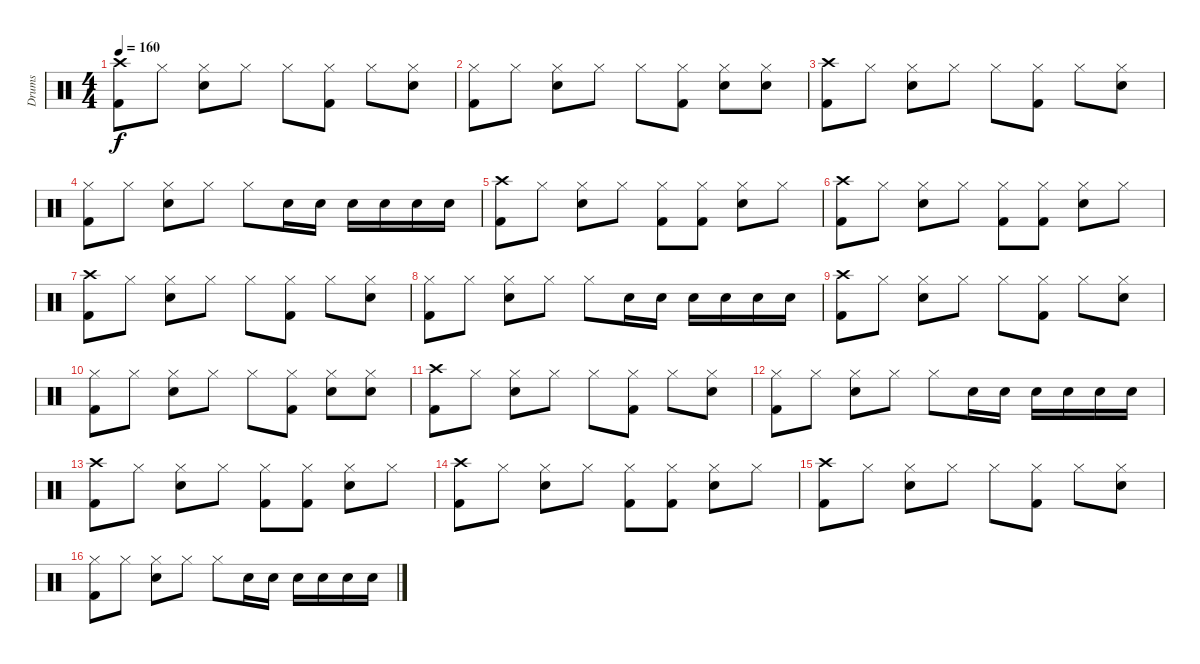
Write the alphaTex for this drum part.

\track ("Drums" "Drums") {solo instrument percussion}
\staff {score}
\articulation defaults
\ts (4 4)
\tempo 160
\clef neutral
\ks c
("Crash high (hit)" "Kick (hit) 2").8{dy f} "Hi-Hat (closed)".8 ("Hi-Hat (closed)" "Snare (hit) 2").8 "Hi-Hat (closed)".8 "Hi-Hat (closed)".8 ("Hi-Hat (closed)" "Kick (hit) 2").8 "Hi-Hat (closed)".8 ("Hi-Hat (closed)" "Snare (hit) 2").8 |
("Hi-Hat (closed)" "Kick (hit) 2").8 "Hi-Hat (closed)".8 ("Hi-Hat (closed)" "Snare (hit) 2").8 "Hi-Hat (closed)".8 "Hi-Hat (closed)".8 ("Hi-Hat (closed)" "Kick (hit) 2").8 ("Hi-Hat (closed)" "Snare (hit) 2").8 ("Hi-Hat (closed)" "Snare (hit) 2").8 |
("Crash high (hit)" "Kick (hit) 2").8 "Hi-Hat (closed)".8 ("Hi-Hat (closed)" "Snare (hit) 2").8 "Hi-Hat (closed)".8 "Hi-Hat (closed)".8 ("Hi-Hat (closed)" "Kick (hit) 2").8 "Hi-Hat (closed)".8 ("Hi-Hat (closed)" "Snare (hit) 2").8 |
("Hi-Hat (closed)" "Kick (hit) 2").8 "Hi-Hat (closed)".8 ("Hi-Hat (closed)" "Snare (hit) 2").8 "Hi-Hat (closed)".8 "Hi-Hat (closed)".8 "Snare (hit) 2".16 "Snare (hit) 2".16 "Snare (hit) 2".16 "Snare (hit) 2".16 "Snare (hit) 2".16 "Snare (hit) 2".16 |
("Crash high (hit)" "Kick (hit) 2").8 "Hi-Hat (closed)".8 ("Hi-Hat (closed)" "Snare (hit) 2").8 "Hi-Hat (closed)".8 ("Hi-Hat (closed)" "Kick (hit) 2").8 ("Hi-Hat (closed)" "Kick (hit) 2").8 ("Hi-Hat (closed)" "Snare (hit) 2").8 "Hi-Hat (closed)".8 |
("Crash high (hit)" "Kick (hit) 2").8 "Hi-Hat (closed)".8 ("Hi-Hat (closed)" "Snare (hit) 2").8 "Hi-Hat (closed)".8 ("Hi-Hat (closed)" "Kick (hit) 2").8 ("Hi-Hat (closed)" "Kick (hit) 2").8 ("Hi-Hat (closed)" "Snare (hit) 2").8 "Hi-Hat (closed)".8 |
("Crash high (hit)" "Kick (hit) 2").8 "Hi-Hat (closed)".8 ("Hi-Hat (closed)" "Snare (hit) 2").8 "Hi-Hat (closed)".8 "Hi-Hat (closed)".8 ("Hi-Hat (closed)" "Kick (hit) 2").8 "Hi-Hat (closed)".8 ("Hi-Hat (closed)" "Snare (hit) 2").8 |
("Hi-Hat (closed)" "Kick (hit) 2").8 "Hi-Hat (closed)".8 ("Hi-Hat (closed)" "Snare (hit) 2").8 "Hi-Hat (closed)".8 "Hi-Hat (closed)".8 "Snare (hit) 2".16 "Snare (hit) 2".16 "Snare (hit) 2".16 "Snare (hit) 2".16 "Snare (hit) 2".16 "Snare (hit) 2".16 |
("Crash high (hit)" "Kick (hit) 2").8 "Hi-Hat (closed)".8 ("Hi-Hat (closed)" "Snare (hit) 2").8 "Hi-Hat (closed)".8 "Hi-Hat (closed)".8 ("Hi-Hat (closed)" "Kick (hit) 2").8 "Hi-Hat (closed)".8 ("Hi-Hat (closed)" "Snare (hit) 2").8 |
("Hi-Hat (closed)" "Kick (hit) 2").8 "Hi-Hat (closed)".8 ("Hi-Hat (closed)" "Snare (hit) 2").8 "Hi-Hat (closed)".8 "Hi-Hat (closed)".8 ("Hi-Hat (closed)" "Kick (hit) 2").8 ("Hi-Hat (closed)" "Snare (hit) 2").8 ("Hi-Hat (closed)" "Snare (hit) 2").8 |
("Crash high (hit)" "Kick (hit) 2").8 "Hi-Hat (closed)".8 ("Hi-Hat (closed)" "Snare (hit) 2").8 "Hi-Hat (closed)".8 "Hi-Hat (closed)".8 ("Hi-Hat (closed)" "Kick (hit) 2").8 "Hi-Hat (closed)".8 ("Hi-Hat (closed)" "Snare (hit) 2").8 |
("Hi-Hat (closed)" "Kick (hit) 2").8 "Hi-Hat (closed)".8 ("Hi-Hat (closed)" "Snare (hit) 2").8 "Hi-Hat (closed)".8 "Hi-Hat (closed)".8 "Snare (hit) 2".16 "Snare (hit) 2".16 "Snare (hit) 2".16 "Snare (hit) 2".16 "Snare (hit) 2".16 "Snare (hit) 2".16 |
("Crash high (hit)" "Kick (hit) 2").8 "Hi-Hat (closed)".8 ("Hi-Hat (closed)" "Snare (hit) 2").8 "Hi-Hat (closed)".8 ("Hi-Hat (closed)" "Kick (hit) 2").8 ("Hi-Hat (closed)" "Kick (hit) 2").8 ("Hi-Hat (closed)" "Snare (hit) 2").8 "Hi-Hat (closed)".8 |
("Crash high (hit)" "Kick (hit) 2").8 "Hi-Hat (closed)".8 ("Hi-Hat (closed)" "Snare (hit) 2").8 "Hi-Hat (closed)".8 ("Hi-Hat (closed)" "Kick (hit) 2").8 ("Hi-Hat (closed)" "Kick (hit) 2").8 ("Hi-Hat (closed)" "Snare (hit) 2").8 "Hi-Hat (closed)".8 |
("Crash high (hit)" "Kick (hit) 2").8 "Hi-Hat (closed)".8 ("Hi-Hat (closed)" "Snare (hit) 2").8 "Hi-Hat (closed)".8 "Hi-Hat (closed)".8 ("Hi-Hat (closed)" "Kick (hit) 2").8 "Hi-Hat (closed)".8 ("Hi-Hat (closed)" "Snare (hit) 2").8 |
("Hi-Hat (closed)" "Kick (hit) 2").8 "Hi-Hat (closed)".8 ("Hi-Hat (closed)" "Snare (hit) 2").8 "Hi-Hat (closed)".8 "Hi-Hat (closed)".8 "Snare (hit) 2".16 "Snare (hit) 2".16 "Snare (hit) 2".16 "Snare (hit) 2".16 "Snare (hit) 2".16 "Snare (hit) 2".16
